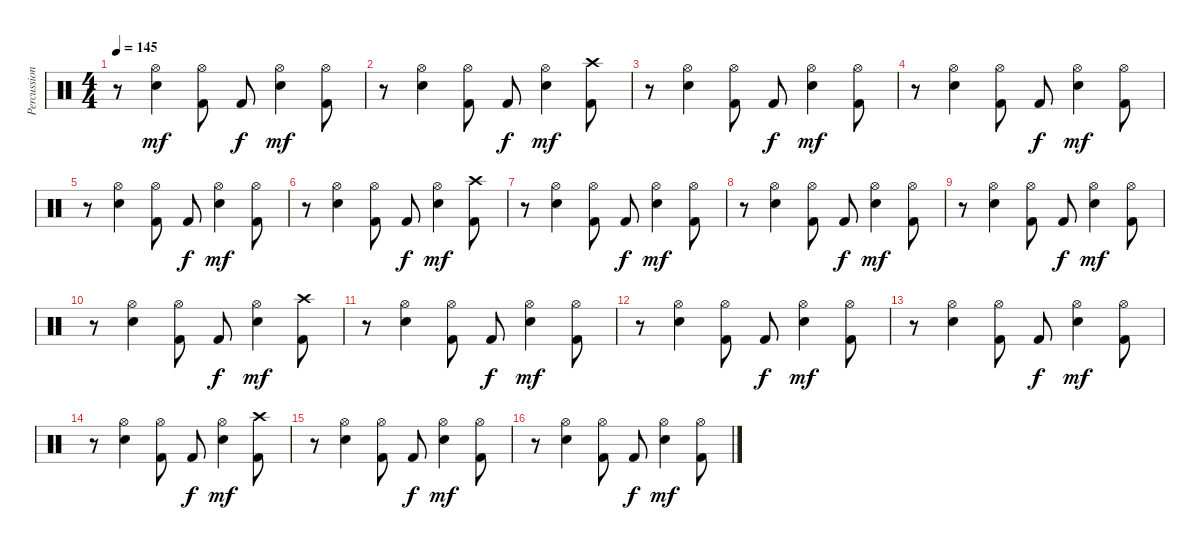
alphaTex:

\track ("Percussioni" "Percussion") {instrument percussion}
\staff {score}
\articulation defaults
\ts (4 4)
\tempo 145
\clef neutral
\ks c
r.8{dy mf} ("Snare (hit) 2" "Hi-Hat (open)").4 ("Kick (hit) 2" "Hi-Hat (open)").8 "Kick (hit) 2".8{dy f} ("Snare (hit) 2" "Hi-Hat (open)").4{dy mf} ("Kick (hit) 2" "Hi-Hat (open)").8 |
r.8 ("Snare (hit) 2" "Hi-Hat (open)").4 ("Kick (hit) 2" "Hi-Hat (open)").8 "Kick (hit) 2".8{dy f} ("Snare (hit) 2" "Hi-Hat (open)").4{dy mf} ("Kick (hit) 2" "Crash high (hit)").8 |
r.8 ("Snare (hit) 2" "Hi-Hat (open)").4 ("Kick (hit) 2" "Hi-Hat (open)").8 "Kick (hit) 2".8{dy f} ("Snare (hit) 2" "Hi-Hat (open)").4{dy mf} ("Kick (hit) 2" "Hi-Hat (open)").8 |
r.8 ("Snare (hit) 2" "Hi-Hat (open)").4 ("Kick (hit) 2" "Hi-Hat (open)").8 "Kick (hit) 2".8{dy f} ("Snare (hit) 2" "Hi-Hat (open)").4{dy mf} ("Kick (hit) 2" "Hi-Hat (open)").8 |
r.8 ("Snare (hit) 2" "Hi-Hat (open)").4 ("Kick (hit) 2" "Hi-Hat (open)").8 "Kick (hit) 2".8{dy f} ("Snare (hit) 2" "Hi-Hat (open)").4{dy mf} ("Kick (hit) 2" "Hi-Hat (open)").8 |
r.8 ("Snare (hit) 2" "Hi-Hat (open)").4 ("Kick (hit) 2" "Hi-Hat (open)").8 "Kick (hit) 2".8{dy f} ("Snare (hit) 2" "Hi-Hat (open)").4{dy mf} ("Kick (hit) 2" "Crash high (hit)").8 |
r.8 ("Snare (hit) 2" "Hi-Hat (open)").4 ("Kick (hit) 2" "Hi-Hat (open)").8 "Kick (hit) 2".8{dy f} ("Snare (hit) 2" "Hi-Hat (open)").4{dy mf} ("Kick (hit) 2" "Hi-Hat (open)").8 |
r.8 ("Snare (hit) 2" "Hi-Hat (open)").4 ("Kick (hit) 2" "Hi-Hat (open)").8 "Kick (hit) 2".8{dy f} ("Snare (hit) 2" "Hi-Hat (open)").4{dy mf} ("Kick (hit) 2" "Hi-Hat (open)").8 |
r.8 ("Snare (hit) 2" "Hi-Hat (open)").4 ("Kick (hit) 2" "Hi-Hat (open)").8 "Kick (hit) 2".8{dy f} ("Snare (hit) 2" "Hi-Hat (open)").4{dy mf} ("Kick (hit) 2" "Hi-Hat (open)").8 |
r.8 ("Snare (hit) 2" "Hi-Hat (open)").4 ("Kick (hit) 2" "Hi-Hat (open)").8 "Kick (hit) 2".8{dy f} ("Snare (hit) 2" "Hi-Hat (open)").4{dy mf} ("Kick (hit) 2" "Crash high (hit)").8 |
r.8 ("Snare (hit) 2" "Hi-Hat (open)").4 ("Kick (hit) 2" "Hi-Hat (open)").8 "Kick (hit) 2".8{dy f} ("Snare (hit) 2" "Hi-Hat (open)").4{dy mf} ("Kick (hit) 2" "Hi-Hat (open)").8 |
r.8 ("Snare (hit) 2" "Hi-Hat (open)").4 ("Kick (hit) 2" "Hi-Hat (open)").8 "Kick (hit) 2".8{dy f} ("Snare (hit) 2" "Hi-Hat (open)").4{dy mf} ("Kick (hit) 2" "Hi-Hat (open)").8 |
r.8 ("Snare (hit) 2" "Hi-Hat (open)").4 ("Kick (hit) 2" "Hi-Hat (open)").8 "Kick (hit) 2".8{dy f} ("Snare (hit) 2" "Hi-Hat (open)").4{dy mf} ("Kick (hit) 2" "Hi-Hat (open)").8 |
r.8 ("Snare (hit) 2" "Hi-Hat (open)").4 ("Kick (hit) 2" "Hi-Hat (open)").8 "Kick (hit) 2".8{dy f} ("Snare (hit) 2" "Hi-Hat (open)").4{dy mf} ("Kick (hit) 2" "Crash high (hit)").8 |
r.8 ("Snare (hit) 2" "Hi-Hat (open)").4 ("Kick (hit) 2" "Hi-Hat (open)").8 "Kick (hit) 2".8{dy f} ("Snare (hit) 2" "Hi-Hat (open)").4{dy mf} ("Kick (hit) 2" "Hi-Hat (open)").8 |
r.8 ("Snare (hit) 2" "Hi-Hat (open)").4 ("Kick (hit) 2" "Hi-Hat (open)").8 "Kick (hit) 2".8{dy f} ("Snare (hit) 2" "Hi-Hat (open)").4{dy mf} ("Kick (hit) 2" "Hi-Hat (open)").8
